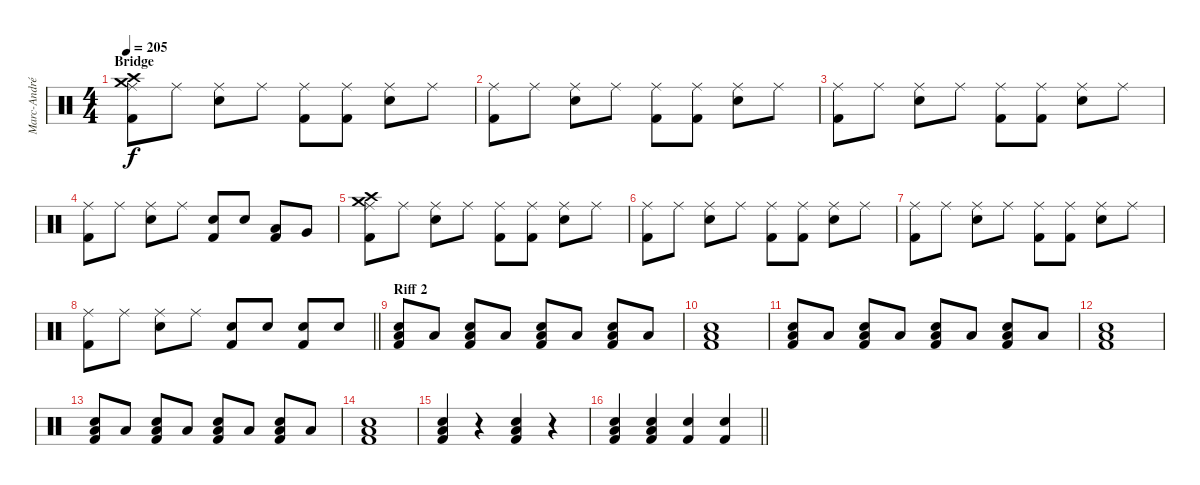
\track ("Marc-André Barabé" "Marc-André") {instrument percussion}
\staff {score}
\articulation defaults
\ts (4 4)
\section ("" "Bridge")
\tempo 205
\clef neutral
\ks c
("Crash high (hit)" "Crash medium (hit)" "Ride (middle)" "Kick (hit) 2").8{dy f} "Ride (middle)".8 ("Ride (middle)" "Electric Snare (hit)").8 "Ride (middle)".8 ("Ride (middle)" "Kick (hit) 2").8 ("Ride (middle)" "Kick (hit) 2").8 ("Ride (middle)" "Electric Snare (hit)").8 "Ride (middle)".8 |
("Ride (middle)" "Kick (hit) 2").8 "Ride (middle)".8 ("Ride (middle)" "Electric Snare (hit)").8 "Ride (middle)".8 ("Ride (middle)" "Kick (hit) 2").8 ("Ride (middle)" "Kick (hit) 2").8 ("Ride (middle)" "Electric Snare (hit)").8 "Ride (middle)".8 |
("Ride (middle)" "Kick (hit) 2").8 "Ride (middle)".8 ("Ride (middle)" "Electric Snare (hit)").8 "Ride (middle)".8 ("Ride (middle)" "Kick (hit) 2").8 ("Ride (middle)" "Kick (hit) 2").8 ("Ride (middle)" "Electric Snare (hit)").8 "Ride (middle)".8 |
("Ride (middle)" "Kick (hit) 2").8 "Ride (middle)".8 ("Ride (middle)" "Electric Snare (hit)").8 "Ride (middle)".8 ("Electric Snare (hit)"{tr (4 32)} "Kick (hit) 2").8 "Electric Snare (hit)"{tr (4 32)}.8 ("Low Tom (hit)"{tr (4 32)} "Kick (hit) 2").8 "Very Low Tom (hit)"{tr (4 32)}.8 |
("Crash high (hit)" "Crash medium (hit)" "Ride (middle)" "Kick (hit) 2").8 "Ride (middle)".8 ("Ride (middle)" "Electric Snare (hit)").8 "Ride (middle)".8 ("Ride (middle)" "Kick (hit) 2").8 ("Ride (middle)" "Kick (hit) 2").8 ("Ride (middle)" "Electric Snare (hit)").8 "Ride (middle)".8 |
("Ride (middle)" "Kick (hit) 2").8 "Ride (middle)".8 ("Ride (middle)" "Electric Snare (hit)").8 "Ride (middle)".8 ("Ride (middle)" "Kick (hit) 2").8 ("Ride (middle)" "Kick (hit) 2").8 ("Ride (middle)" "Electric Snare (hit)").8 "Ride (middle)".8 |
("Ride (middle)" "Kick (hit) 2").8 "Ride (middle)".8 ("Ride (middle)" "Electric Snare (hit)").8 "Ride (middle)".8 ("Ride (middle)" "Kick (hit) 2").8 ("Ride (middle)" "Kick (hit) 2").8 ("Ride (middle)" "Electric Snare (hit)").8 "Ride (middle)".8 |
\barLineRight lightlight
("Ride (middle)" "Kick (hit) 2").8 "Ride (middle)".8 ("Ride (middle)" "Electric Snare (hit)").8 "Ride (middle)".8 ("Electric Snare (hit)"{tr (4 32)} "Kick (hit) 2").8 "Electric Snare (hit)"{tr (4 32)}.8 ("Electric Snare (hit)"{tr (4 32)} "Kick (hit) 2").8 "Electric Snare (hit)"{tr (4 32)}.8 |
\section ("" "Riff 2")
("Electric Snare (hit)" "Low Floor Tom (hit)" "Kick (hit) 2").8 "Low Floor Tom (hit)".8 ("Electric Snare (hit)" "Low Floor Tom (hit)" "Kick (hit) 2"{tr (2 32)}).8 "Low Floor Tom (hit)".8 ("Electric Snare (hit)" "Low Floor Tom (hit)" "Kick (hit) 2").8 "Low Floor Tom (hit)".8 ("Electric Snare (hit)" "Low Floor Tom (hit)" "Kick (hit) 2"{tr (2 32)}).8 "Low Floor Tom (hit)".8 |
("Electric Snare (hit)" "Low Floor Tom (hit)" "Kick (hit) 2").1 |
("Electric Snare (hit)" "Low Floor Tom (hit)" "Kick (hit) 2").8 "Low Floor Tom (hit)".8 ("Electric Snare (hit)" "Low Floor Tom (hit)" "Kick (hit) 2"{tr (2 32)}).8 "Low Floor Tom (hit)".8 ("Electric Snare (hit)" "Low Floor Tom (hit)" "Kick (hit) 2").8 "Low Floor Tom (hit)".8 ("Electric Snare (hit)" "Low Floor Tom (hit)" "Kick (hit) 2"{tr (2 32)}).8 "Low Floor Tom (hit)".8 |
("Electric Snare (hit)" "Low Floor Tom (hit)" "Kick (hit) 2").1 |
("Electric Snare (hit)" "Low Floor Tom (hit)" "Kick (hit) 2").8 "Low Floor Tom (hit)".8 ("Electric Snare (hit)" "Low Floor Tom (hit)" "Kick (hit) 2"{tr (2 32)}).8 "Low Floor Tom (hit)".8 ("Electric Snare (hit)" "Low Floor Tom (hit)" "Kick (hit) 2").8 "Low Floor Tom (hit)".8 ("Electric Snare (hit)" "Low Floor Tom (hit)" "Kick (hit) 2"{tr (2 32)}).8 "Low Floor Tom (hit)".8 |
("Electric Snare (hit)" "Low Floor Tom (hit)" "Kick (hit) 2").1 |
("Electric Snare (hit)" "Low Floor Tom (hit)" "Kick (hit) 2").4 r.4 ("Electric Snare (hit)" "Low Floor Tom (hit)" "Kick (hit) 2").4 r.4 |
\barLineRight lightlight
("Electric Snare (hit)" "Low Floor Tom (hit)" "Kick (hit) 2").4 ("Electric Snare (hit)" "Low Floor Tom (hit)" "Kick (hit) 2").4 ("Electric Snare (hit)"{tr (4 32)} "Kick (hit) 2").4 ("Electric Snare (hit)"{tr (4 32)} "Kick (hit) 2").4
